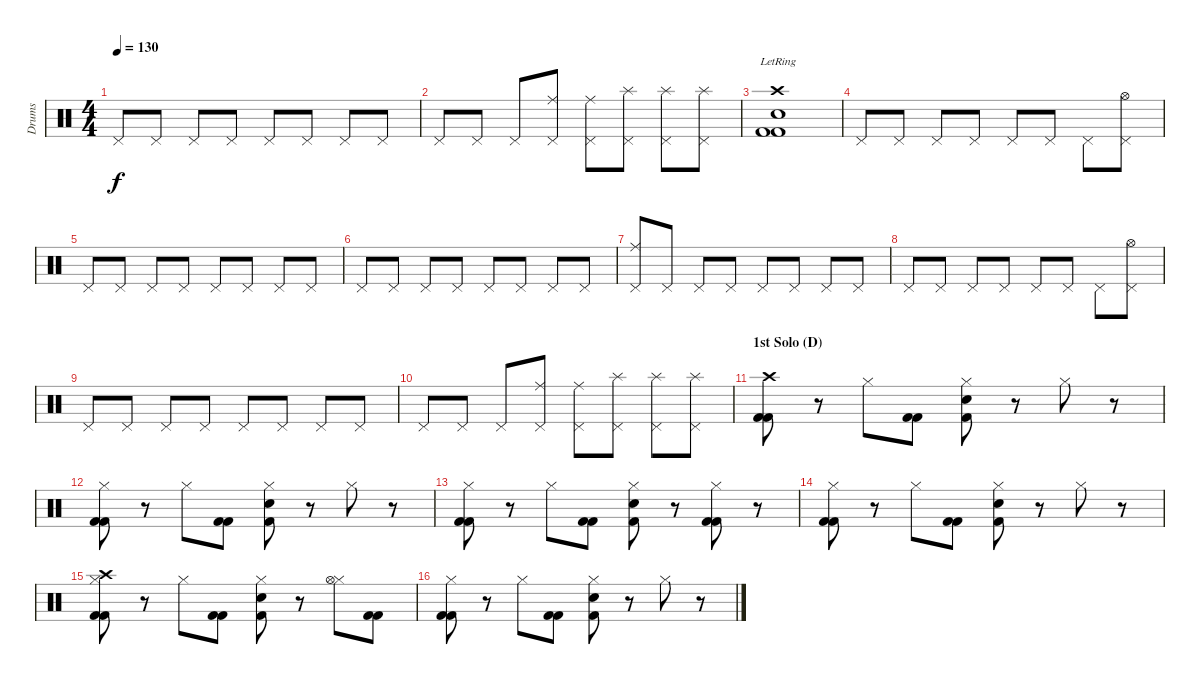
\track ("Drums" "Drums") {instrument percussion}
\staff {score}
\articulation defaults
\ts (4 4)
\tempo 130
\clef neutral
\ks c "Pedal Hi-Hat (hit)".8{dy f} "Pedal Hi-Hat (hit)".8 "Pedal Hi-Hat (hit)".8 "Pedal Hi-Hat (hit)".8 "Pedal Hi-Hat (hit)".8 "Pedal Hi-Hat (hit)".8 "Pedal Hi-Hat (hit)".8 "Pedal Hi-Hat (hit)".8
|
"Pedal Hi-Hat (hit)".8 "Pedal Hi-Hat (hit)".8 "Pedal Hi-Hat (hit)".8 ("Pedal Hi-Hat (hit)" "Ride (middle)").8 ("Pedal Hi-Hat (hit)" "Ride (middle)").8 ("Pedal Hi-Hat (hit)" "Splash (hit)").8 ("Pedal Hi-Hat (hit)" "Splash (hit)").8 ("Pedal Hi-Hat (hit)" "Splash (hit)").8 |
("Kick (hit) 2" "Kick (hit) 2" "Snare (hit) 2" "Crash high (hit)"{lr}).1 |
"Pedal Hi-Hat (hit)".8 "Pedal Hi-Hat (hit)".8 "Pedal Hi-Hat (hit)".8 "Pedal Hi-Hat (hit)".8 "Pedal Hi-Hat (hit)".8 "Pedal Hi-Hat (hit)".8 "Pedal Hi-Hat (hit)".8 ("Pedal Hi-Hat (hit)" "Hi-Hat (open)").8 |
"Pedal Hi-Hat (hit)".8 "Pedal Hi-Hat (hit)".8 "Pedal Hi-Hat (hit)".8 "Pedal Hi-Hat (hit)".8 "Pedal Hi-Hat (hit)".8 "Pedal Hi-Hat (hit)".8 "Pedal Hi-Hat (hit)".8 "Pedal Hi-Hat (hit)".8 |
"Pedal Hi-Hat (hit)".8 "Pedal Hi-Hat (hit)".8 "Pedal Hi-Hat (hit)".8 "Pedal Hi-Hat (hit)".8 "Pedal Hi-Hat (hit)".8 "Pedal Hi-Hat (hit)".8 "Pedal Hi-Hat (hit)".8 "Pedal Hi-Hat (hit)".8 |
("Pedal Hi-Hat (hit)" "Ride (middle)").8 "Pedal Hi-Hat (hit)".8 "Pedal Hi-Hat (hit)".8 "Pedal Hi-Hat (hit)".8 "Pedal Hi-Hat (hit)".8 "Pedal Hi-Hat (hit)".8 "Pedal Hi-Hat (hit)".8 "Pedal Hi-Hat (hit)".8 |
"Pedal Hi-Hat (hit)".8 "Pedal Hi-Hat (hit)".8 "Pedal Hi-Hat (hit)".8 "Pedal Hi-Hat (hit)".8 "Pedal Hi-Hat (hit)".8 "Pedal Hi-Hat (hit)".8 "Pedal Hi-Hat (hit)".8 ("Pedal Hi-Hat (hit)" "Hi-Hat (open)").8 |
"Pedal Hi-Hat (hit)".8 "Pedal Hi-Hat (hit)".8 "Pedal Hi-Hat (hit)".8 "Pedal Hi-Hat (hit)".8 "Pedal Hi-Hat (hit)".8 "Pedal Hi-Hat (hit)".8 "Pedal Hi-Hat (hit)".8 "Pedal Hi-Hat (hit)".8 |
"Pedal Hi-Hat (hit)".8 "Pedal Hi-Hat (hit)".8 "Pedal Hi-Hat (hit)".8 ("Pedal Hi-Hat (hit)" "Ride (middle)").8 ("Pedal Hi-Hat (hit)" "Ride (middle)").8 ("Pedal Hi-Hat (hit)" "Splash (hit)").8 ("Pedal Hi-Hat (hit)" "Splash (hit)").8 ("Pedal Hi-Hat (hit)" "Splash (hit)").8 |
\section ("" "1st Solo (D)")
("Crash high (hit)" "Kick (hit) 2" "Kick (hit) 2").8 r.8 "Hi-Hat (closed)".8 ("Kick (hit) 2" "Kick (hit) 2").8 ("Hi-Hat (closed)" "Snare (hit) 2" "Kick (hit) 2").8 r.8 "Hi-Hat (closed)".8 r.8 |
("Hi-Hat (closed)" "Kick (hit) 2" "Kick (hit) 2").8 r.8 "Hi-Hat (closed)".8 ("Kick (hit) 2" "Kick (hit) 2").8 ("Hi-Hat (closed)" "Kick (hit) 2" "Snare (hit) 2").8 r.8 "Hi-Hat (closed)".8 r.8 |
("Hi-Hat (closed)" "Kick (hit) 2" "Kick (hit) 2").8 r.8 "Hi-Hat (closed)".8 ("Kick (hit) 2" "Kick (hit) 2").8 ("Hi-Hat (closed)" "Kick (hit) 2" "Snare (hit) 2").8 r.8 ("Hi-Hat (closed)" "Kick (hit) 2" "Kick (hit) 2").8 r.8 |
("Hi-Hat (closed)" "Kick (hit) 2" "Kick (hit) 2").8 r.8 "Hi-Hat (closed)".8 ("Kick (hit) 2" "Kick (hit) 2").8 ("Hi-Hat (closed)" "Kick (hit) 2" "Snare (hit) 2").8 r.8 "Hi-Hat (closed)".8 r.8 |
("Hi-Hat (closed)" "Kick (hit) 2" "Kick (hit) 2" "Crash high (hit)").8 r.8 "Hi-Hat (closed)".8 ("Kick (hit) 2" "Kick (hit) 2").8 ("Hi-Hat (closed)" "Kick (hit) 2" "Snare (hit) 2").8 r.8 ("Hi-Hat (closed)" "Hi-Hat (open)").8 ("Kick (hit) 2" "Kick (hit) 2").8 |
("Hi-Hat (closed)" "Kick (hit) 2" "Kick (hit) 2").8 r.8 "Hi-Hat (closed)".8 ("Kick (hit) 2" "Kick (hit) 2").8 ("Hi-Hat (closed)" "Kick (hit) 2" "Snare (hit) 2").8 r.8 "Hi-Hat (closed)".8 r.8
